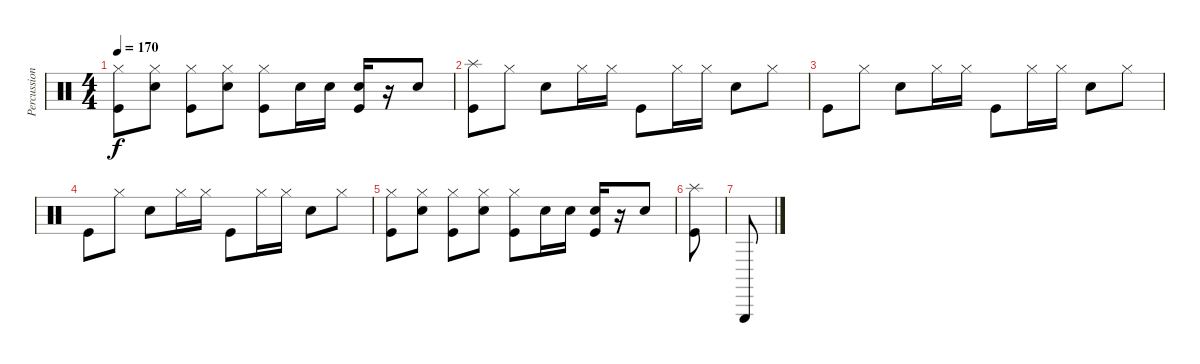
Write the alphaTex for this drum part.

\track ("Percussion" "Percussion") {instrument percussion}
\staff {score}
\articulation defaults
\ts (4 4)
\tempo 170
\clef neutral
\ks c
("Hi-Hat (closed)" "Kick (hit)").8{dy f} ("Hi-Hat (closed)" "Electric Snare (hit)").8 ("Hi-Hat (closed)" "Kick (hit)").8 ("Hi-Hat (closed)" "Electric Snare (hit)").8 ("Hi-Hat (closed)" "Kick (hit)").8 "Electric Snare (hit)".16 "Electric Snare (hit)".16 ("Electric Snare (hit)" "Kick (hit)").16 r.16 "Electric Snare (hit)".8 |
("Splash (hit)" "Kick (hit)").8 "Hi-Hat (closed)".8 "Electric Snare (hit)".8 "Hi-Hat (closed)".16 "Hi-Hat (closed)".16 "Kick (hit)".8 "Hi-Hat (closed)".16 "Hi-Hat (closed)".16 "Electric Snare (hit)".8 "Hi-Hat (closed)".8 |
"Kick (hit)".8 "Hi-Hat (closed)".8 "Electric Snare (hit)".8 "Hi-Hat (closed)".16 "Hi-Hat (closed)".16 "Kick (hit)".8 "Hi-Hat (closed)".16 "Hi-Hat (closed)".16 "Electric Snare (hit)".8 "Hi-Hat (closed)".8 |
"Kick (hit)".8 "Hi-Hat (closed)".8 "Electric Snare (hit)".8 "Hi-Hat (closed)".16 "Hi-Hat (closed)".16 "Kick (hit)".8 "Hi-Hat (closed)".16 "Hi-Hat (closed)".16 "Electric Snare (hit)".8 "Hi-Hat (closed)".8 |
("Hi-Hat (closed)" "Kick (hit)").8 ("Hi-Hat (closed)" "Electric Snare (hit)").8 ("Hi-Hat (closed)" "Kick (hit)").8 ("Hi-Hat (closed)" "Electric Snare (hit)").8 ("Hi-Hat (closed)" "Kick (hit)").8 "Electric Snare (hit)".16 "Electric Snare (hit)".16 ("Electric Snare (hit)" "Kick (hit)").16 r.16 "Electric Snare (hit)".8 |
("Splash (hit)" "Kick (hit)").8 |
"Triangle (hit)".8
